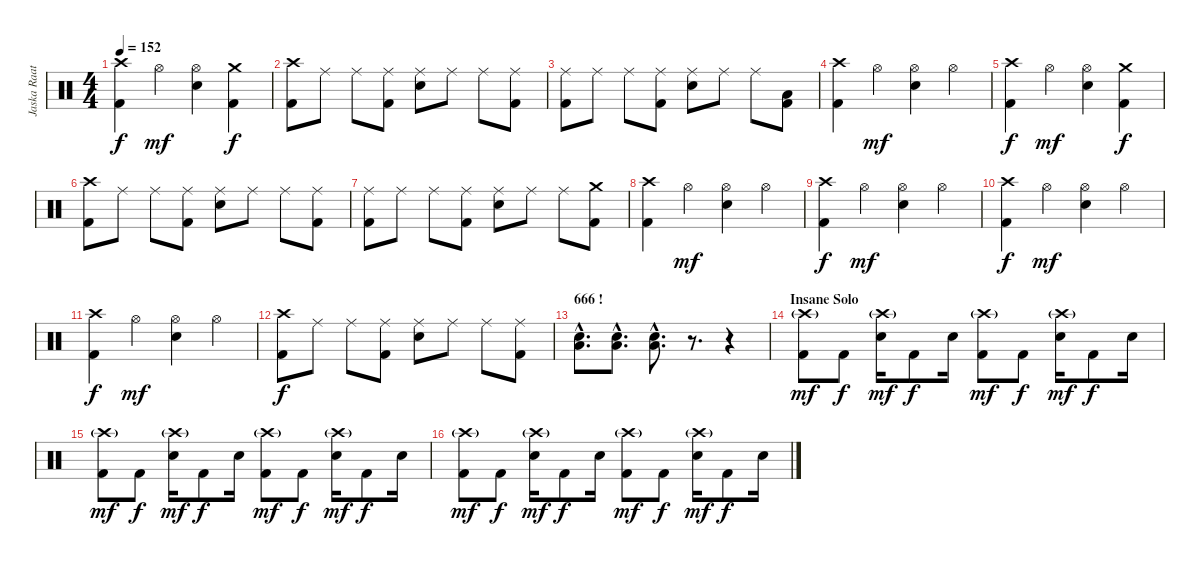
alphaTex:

\track ("Jaska Raatikainen" "Jaska Raat") {instrument percussion}
\staff {score}
\articulation defaults
\ts (4 4)
\tempo 152
\clef neutral
\ks c
("Crash high (hit)" "Kick (hit) 2").4{dy f} "Hi-Hat (open)".4{dy mf} ("Hi-Hat (open)" "Electric Snare (hit)").4 ("Crash medium (hit)" "Kick (hit) 2").4{dy f} |
("Crash high (hit)" "Kick (hit) 2").8 "Ride (middle)".8 "Ride (middle)".8 ("Ride (middle)" "Kick (hit) 2").8 ("Ride (middle)" "Electric Snare (hit)").8 "Ride (middle)".8 "Ride (middle)".8 ("Ride (middle)" "Kick (hit) 2").8 |
("Ride (middle)" "Kick (hit) 2").8 "Ride (middle)".8 "Ride (middle)".8 ("Ride (middle)" "Kick (hit) 2").8 ("Ride (middle)" "Electric Snare (hit)").8 "Ride (middle)".8 "Ride (middle)".8 ("Low Tom (hit)" "Kick (hit) 2").8 |
("Crash high (hit)" "Kick (hit) 2").4 "Hi-Hat (open)".4{dy mf} ("Hi-Hat (open)" "Electric Snare (hit)").4 "Hi-Hat (open)".4 |
("Crash high (hit)" "Kick (hit) 2").4{dy f} "Hi-Hat (open)".4{dy mf} ("Hi-Hat (open)" "Electric Snare (hit)").4 ("Crash medium (hit)" "Kick (hit) 2").4{dy f} |
("Crash high (hit)" "Kick (hit) 2").8 "Ride (middle)".8 "Ride (middle)".8 ("Ride (middle)" "Kick (hit) 2").8 ("Ride (middle)" "Electric Snare (hit)").8 "Ride (middle)".8 "Ride (middle)".8 ("Ride (middle)" "Kick (hit) 2").8 |
("Ride (middle)" "Kick (hit) 2").8 "Ride (middle)".8 "Ride (middle)".8 ("Ride (middle)" "Kick (hit) 2").8 ("Ride (middle)" "Electric Snare (hit)").8 "Ride (middle)".8 "Ride (middle)".8 ("Crash medium (hit)" "Kick (hit) 2").8 |
("Crash high (hit)" "Kick (hit) 2").4 "Hi-Hat (open)".4{dy mf} ("Hi-Hat (open)" "Electric Snare (hit)").4 "Hi-Hat (open)".4 |
("Crash high (hit)" "Kick (hit) 2").4{dy f} "Hi-Hat (open)".4{dy mf} ("Hi-Hat (open)" "Electric Snare (hit)").4 "Hi-Hat (open)".4 |
("Crash high (hit)" "Kick (hit) 2").4{dy f} "Hi-Hat (open)".4{dy mf} ("Hi-Hat (open)" "Electric Snare (hit)").4 "Hi-Hat (open)".4 |
("Crash high (hit)" "Kick (hit) 2").4{dy f} "Hi-Hat (open)".4{dy mf} ("Hi-Hat (open)" "Electric Snare (hit)").4 "Hi-Hat (open)".4 |
("Crash high (hit)" "Kick (hit) 2").8{dy f} "Ride (middle)".8 "Ride (middle)".8 ("Ride (middle)" "Kick (hit) 2").8 ("Ride (middle)" "Electric Snare (hit)").8 "Ride (middle)".8 "Ride (middle)".8 ("Ride (middle)" "Kick (hit) 2").8 |
\section ("" "666 !")
("Electric Snare (hit)"{hac} "Low Tom (hit)"{hac}).8{d} ("Electric Snare (hit)"{hac} "Low Tom (hit)"{hac}).8{d} ("Electric Snare (hit)"{hac} "Low Tom (hit)"{hac}).8{d} r.8{d} r.4 |
\section ("" "Insane Solo")
("Crash high (hit)"{g} "Kick (hit) 2").8{dy mf} "Kick (hit) 2".8{dy f} ("Crash high (hit)"{g} "Electric Snare (hit)").16{dy mf} "Kick (hit) 2".8{dy f} "Electric Snare (hit)".16 ("Crash high (hit)"{g} "Kick (hit) 2").8{dy mf} "Kick (hit) 2".8{dy f} ("Crash high (hit)"{g} "Electric Snare (hit)").16{dy mf} "Kick (hit) 2".8{dy f} "Electric Snare (hit)".16 |
("Crash high (hit)"{g} "Kick (hit) 2").8{dy mf} "Kick (hit) 2".8{dy f} ("Crash high (hit)"{g} "Electric Snare (hit)").16{dy mf} "Kick (hit) 2".8{dy f} "Electric Snare (hit)".16 ("Crash high (hit)"{g} "Kick (hit) 2").8{dy mf} "Kick (hit) 2".8{dy f} ("Crash high (hit)"{g} "Electric Snare (hit)").16{dy mf} "Kick (hit) 2".8{dy f} "Electric Snare (hit)".16 |
("Crash high (hit)"{g} "Kick (hit) 2").8{dy mf} "Kick (hit) 2".8{dy f} ("Crash high (hit)"{g} "Electric Snare (hit)").16{dy mf} "Kick (hit) 2".8{dy f} "Electric Snare (hit)".16 ("Crash high (hit)"{g} "Kick (hit) 2").8{dy mf} "Kick (hit) 2".8{dy f} ("Crash high (hit)"{g} "Electric Snare (hit)").16{dy mf} "Kick (hit) 2".8{dy f} "Electric Snare (hit)".16
